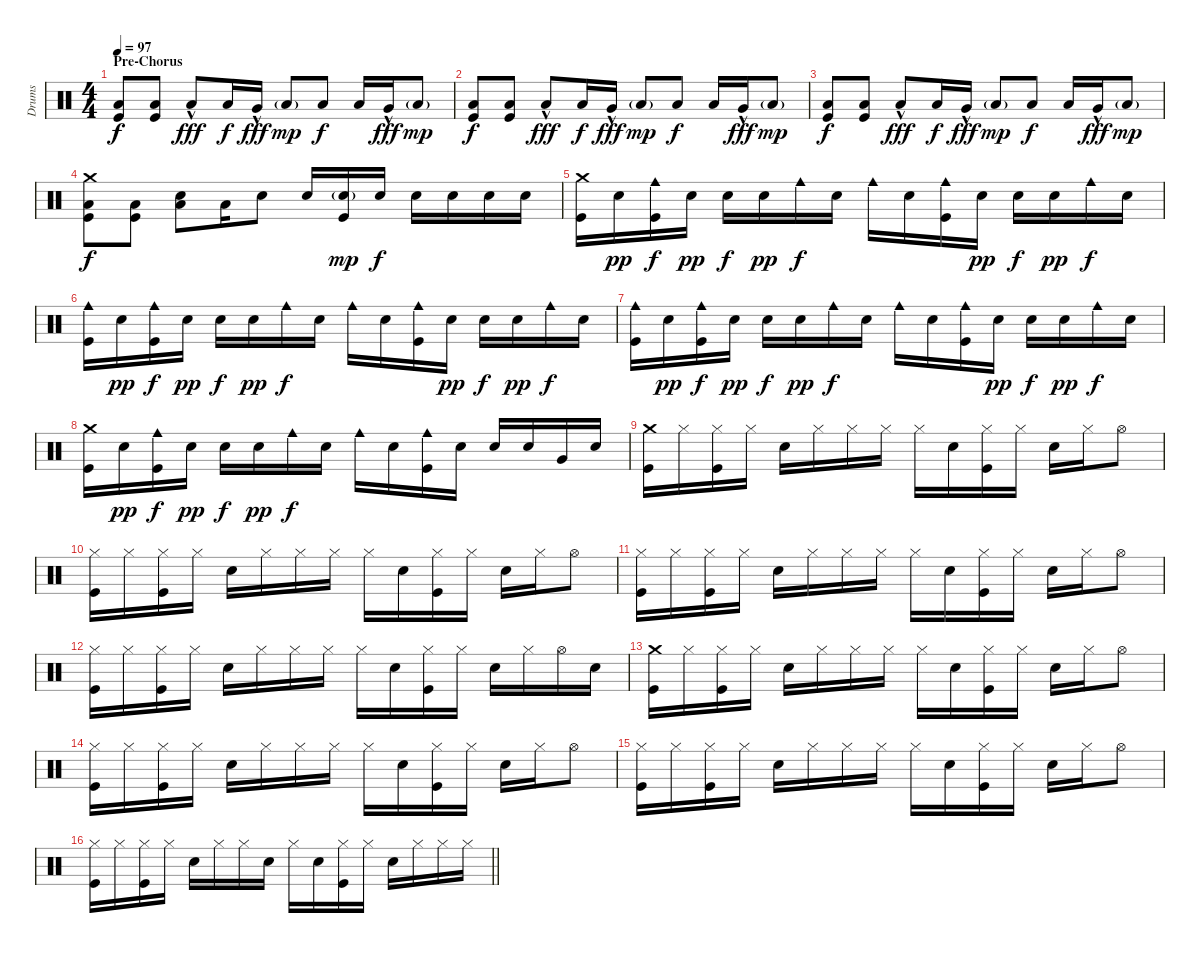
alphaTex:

\track ("Drums" "Drums") {instrument percussion}
\staff {score}
\articulation defaults
\ts (4 4)
\section ("" "Pre-Chorus")
\tempo 97
\clef neutral
\ks c
("Low Floor Tom (hit)" "Kick (hit)").8{dy f} ("Low Floor Tom (hit)" "Kick (hit)").8 "Low Floor Tom (hit)"{hac}.8{dy fff} "Low Floor Tom (hit)".16{dy f} "Very Low Tom (hit)"{hac}.16{dy fff} "Low Floor Tom (hit)"{g}.8{dy mp} "Low Floor Tom (hit)".8{dy f} "Low Floor Tom (hit)".16 "Very Low Tom (hit)"{hac}.16{dy fff} "Low Floor Tom (hit)"{g}.8{dy mp} |
("Low Floor Tom (hit)" "Kick (hit)").8{dy f} ("Low Floor Tom (hit)" "Kick (hit)").8 "Low Floor Tom (hit)"{hac}.8{dy fff} "Low Floor Tom (hit)".16{dy f} "Very Low Tom (hit)"{hac}.16{dy fff} "Low Floor Tom (hit)"{g}.8{dy mp} "Low Floor Tom (hit)".8{dy f} "Low Floor Tom (hit)".16 "Very Low Tom (hit)"{hac}.16{dy fff} "Low Floor Tom (hit)"{g}.8{dy mp} |
("Low Floor Tom (hit)" "Kick (hit)").8{dy f} ("Low Floor Tom (hit)" "Kick (hit)").8 "Low Floor Tom (hit)"{hac}.8{dy fff} "Low Floor Tom (hit)".16{dy f} "Very Low Tom (hit)"{hac}.16{dy fff} "Low Floor Tom (hit)"{g}.8{dy mp} "Low Floor Tom (hit)".8{dy f} "Low Floor Tom (hit)".16 "Very Low Tom (hit)"{hac}.16{dy fff} "Low Floor Tom (hit)"{g}.8{dy mp} |
("Crash medium (hit)" "Low Floor Tom (hit)" "Kick (hit)").8{dy f} ("Low Floor Tom (hit)" "Kick (hit)").8 ("Electric Snare (hit)" "Low Floor Tom (hit)").8 "Low Floor Tom (hit)".16 "Electric Snare (hit)".8 "Electric Snare (hit)".16 ("Electric Snare (hit)"{g} "Kick (hit)").16{dy mp} "Electric Snare (hit)".16{dy f} "Electric Snare (hit)".16 "Electric Snare (hit)".16 "Electric Snare (hit)".16 "Electric Snare (hit)".16 |
("Crash medium (hit)" "Kick (hit)").16 "Electric Snare (hit)".16{dy pp} ("Cowbell medium (hit)" "Kick (hit)").16{dy f} "Electric Snare (hit)".16{dy pp} "Electric Snare (hit)".16{dy f} "Electric Snare (hit)".16{dy pp} "Cowbell medium (hit)".16{dy f} "Electric Snare (hit)".16 "Cowbell medium (hit)".16 "Electric Snare (hit)".16 ("Cowbell medium (hit)" "Kick (hit)").16 "Electric Snare (hit)".16{dy pp} "Electric Snare (hit)".16{dy f} "Electric Snare (hit)".16{dy pp} "Cowbell medium (hit)".16{dy f} "Electric Snare (hit)".16 |
("Cowbell medium (hit)" "Kick (hit)").16 "Electric Snare (hit)".16{dy pp} ("Cowbell medium (hit)" "Kick (hit)").16{dy f} "Electric Snare (hit)".16{dy pp} "Electric Snare (hit)".16{dy f} "Electric Snare (hit)".16{dy pp} "Cowbell medium (hit)".16{dy f} "Electric Snare (hit)".16 "Cowbell medium (hit)".16 "Electric Snare (hit)".16 ("Cowbell medium (hit)" "Kick (hit)").16 "Electric Snare (hit)".16{dy pp} "Electric Snare (hit)".16{dy f} "Electric Snare (hit)".16{dy pp} "Cowbell medium (hit)".16{dy f} "Electric Snare (hit)".16 |
("Cowbell medium (hit)" "Kick (hit)").16 "Electric Snare (hit)".16{dy pp} ("Cowbell medium (hit)" "Kick (hit)").16{dy f} "Electric Snare (hit)".16{dy pp} "Electric Snare (hit)".16{dy f} "Electric Snare (hit)".16{dy pp} "Cowbell medium (hit)".16{dy f} "Electric Snare (hit)".16 "Cowbell medium (hit)".16 "Electric Snare (hit)".16 ("Cowbell medium (hit)" "Kick (hit)").16 "Electric Snare (hit)".16{dy pp} "Electric Snare (hit)".16{dy f} "Electric Snare (hit)".16{dy pp} "Cowbell medium (hit)".16{dy f} "Electric Snare (hit)".16 |
("Crash medium (hit)" "Kick (hit)").16 "Electric Snare (hit)".16{dy pp} ("Cowbell medium (hit)" "Kick (hit)").16{dy f} "Electric Snare (hit)".16{dy pp} "Electric Snare (hit)".16{dy f} "Electric Snare (hit)".16{dy pp} "Cowbell medium (hit)".16{dy f} "Electric Snare (hit)".16 "Cowbell medium (hit)".16 "Electric Snare (hit)".16 ("Cowbell medium (hit)" "Kick (hit)").16 "Electric Snare (hit)".16 "Electric Snare (hit)".16 "Electric Snare (hit)".16 "Very Low Tom (hit)".16 "Electric Snare (hit)".16 |
("Crash medium (hit)" "Kick (hit)").16 "Hi-Hat (closed)".16 ("Hi-Hat (closed)" "Kick (hit)").16 "Hi-Hat (closed)".16 "Electric Snare (hit)".16 "Hi-Hat (closed)".16 "Hi-Hat (closed)".16 "Hi-Hat (closed)".16 "Hi-Hat (closed)".16 "Electric Snare (hit)".16 ("Hi-Hat (closed)" "Kick (hit)").16 "Hi-Hat (closed)".16 "Electric Snare (hit)".16 "Hi-Hat (closed)".16 "Hi-Hat (open)".8 |
("Hi-Hat (closed)" "Kick (hit)").16 "Hi-Hat (closed)".16 ("Hi-Hat (closed)" "Kick (hit)").16 "Hi-Hat (closed)".16 "Electric Snare (hit)".16 "Hi-Hat (closed)".16 "Hi-Hat (closed)".16 "Hi-Hat (closed)".16 "Hi-Hat (closed)".16 "Electric Snare (hit)".16 ("Hi-Hat (closed)" "Kick (hit)").16 "Hi-Hat (closed)".16 "Electric Snare (hit)".16 "Hi-Hat (closed)".16 "Hi-Hat (open)".8 |
("Hi-Hat (closed)" "Kick (hit)").16 "Hi-Hat (closed)".16 ("Hi-Hat (closed)" "Kick (hit)").16 "Hi-Hat (closed)".16 "Electric Snare (hit)".16 "Hi-Hat (closed)".16 "Hi-Hat (closed)".16 "Hi-Hat (closed)".16 "Hi-Hat (closed)".16 "Electric Snare (hit)".16 ("Hi-Hat (closed)" "Kick (hit)").16 "Hi-Hat (closed)".16 "Electric Snare (hit)".16 "Hi-Hat (closed)".16 "Hi-Hat (open)".8 |
("Hi-Hat (closed)" "Kick (hit)").16 "Hi-Hat (closed)".16 ("Hi-Hat (closed)" "Kick (hit)").16 "Hi-Hat (closed)".16 "Electric Snare (hit)".16 "Hi-Hat (closed)".16 "Hi-Hat (closed)".16 "Hi-Hat (closed)".16 "Hi-Hat (closed)".16 "Electric Snare (hit)".16 ("Hi-Hat (closed)" "Kick (hit)").16 "Hi-Hat (closed)".16 "Electric Snare (hit)".16 "Hi-Hat (closed)".16 "Hi-Hat (open)".16 "Electric Snare (hit)".16 |
("Crash medium (hit)" "Kick (hit)").16 "Hi-Hat (closed)".16 ("Hi-Hat (closed)" "Kick (hit)").16 "Hi-Hat (closed)".16 "Electric Snare (hit)".16 "Hi-Hat (closed)".16 "Hi-Hat (closed)".16 "Hi-Hat (closed)".16 "Hi-Hat (closed)".16 "Electric Snare (hit)".16 ("Hi-Hat (closed)" "Kick (hit)").16 "Hi-Hat (closed)".16 "Electric Snare (hit)".16 "Hi-Hat (closed)".16 "Hi-Hat (open)".8 |
("Hi-Hat (closed)" "Kick (hit)").16 "Hi-Hat (closed)".16 ("Hi-Hat (closed)" "Kick (hit)").16 "Hi-Hat (closed)".16 "Electric Snare (hit)".16 "Hi-Hat (closed)".16 "Hi-Hat (closed)".16 "Hi-Hat (closed)".16 "Hi-Hat (closed)".16 "Electric Snare (hit)".16 ("Hi-Hat (closed)" "Kick (hit)").16 "Hi-Hat (closed)".16 "Electric Snare (hit)".16 "Hi-Hat (closed)".16 "Hi-Hat (open)".8 |
("Hi-Hat (closed)" "Kick (hit)").16 "Hi-Hat (closed)".16 ("Hi-Hat (closed)" "Kick (hit)").16 "Hi-Hat (closed)".16 "Electric Snare (hit)".16 "Hi-Hat (closed)".16 "Hi-Hat (closed)".16 "Hi-Hat (closed)".16 "Hi-Hat (closed)".16 "Electric Snare (hit)".16 ("Hi-Hat (closed)" "Kick (hit)").16 "Hi-Hat (closed)".16 "Electric Snare (hit)".16 "Hi-Hat (closed)".16 "Hi-Hat (open)".8 |
\barLineRight lightlight
("Hi-Hat (closed)" "Kick (hit)").16 "Hi-Hat (closed)".16 ("Hi-Hat (closed)" "Kick (hit)").16 "Hi-Hat (closed)".16 "Electric Snare (hit)".16 "Hi-Hat (closed)".16 "Hi-Hat (closed)".16 "Electric Snare (hit)".16 "Hi-Hat (closed)".16 "Electric Snare (hit)".16 ("Hi-Hat (closed)" "Kick (hit)").16 "Hi-Hat (closed)".16 "Electric Snare (hit)".16 "Hi-Hat (closed)".16 "Hi-Hat (closed)".16 "Hi-Hat (closed)".16
